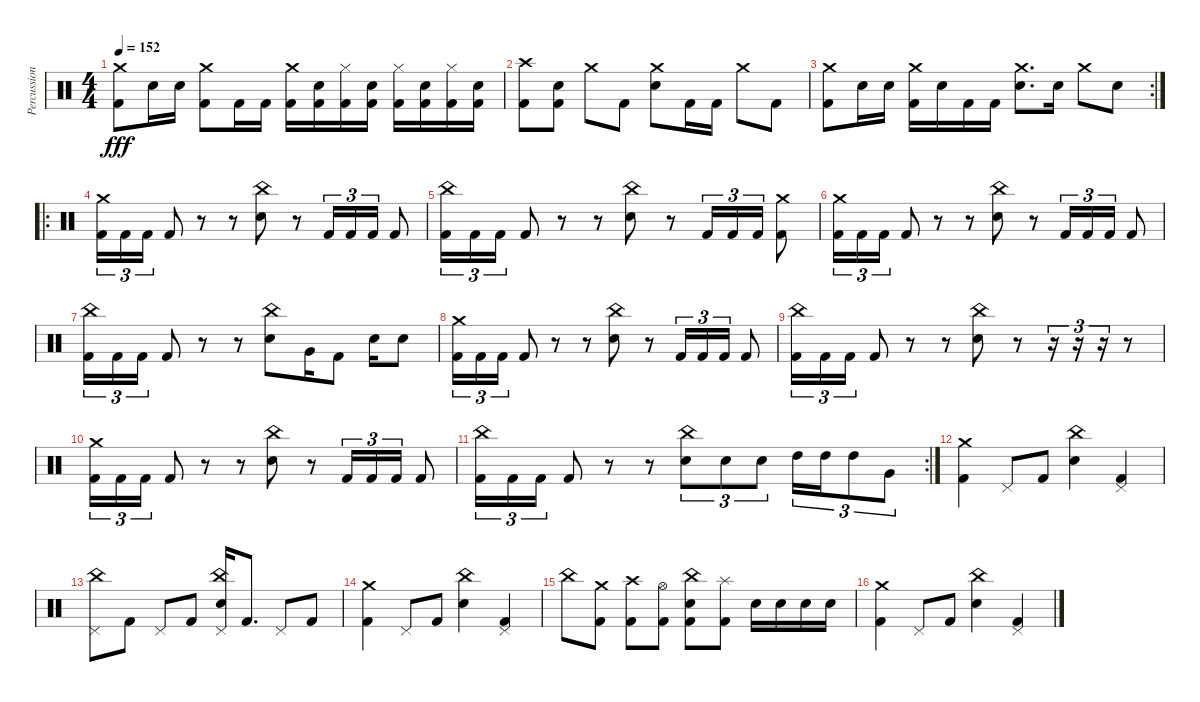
\track ("Percussion" "Percussion") {instrument percussion}
\staff {score}
\articulation defaults
\ts (4 4)
\tempo 152
\clef neutral
\ks c
("Crash medium (hit)" "Kick (hit) 2").8{dy fff} "Electric Snare (hit)".16 "Electric Snare (hit)".16 ("Crash medium (hit)" "Kick (hit) 2").8 "Kick (hit) 2".16 "Kick (hit) 2".16 ("Crash medium (hit)" "Kick (hit) 2").16 ("Kick (hit) 2" "Electric Snare (hit)").16 ("Hi-Hat (closed)" "Kick (hit) 2").16 ("Kick (hit) 2" "Electric Snare (hit)").16 ("Kick (hit) 2" "Hi-Hat (closed)").16 ("Kick (hit) 2" "Electric Snare (hit)").16 ("Hi-Hat (closed)" "Kick (hit) 2").16 ("Kick (hit) 2" "Electric Snare (hit)").16 |
("Kick (hit) 2" "Crash high (hit)").8 ("Kick (hit) 2" "Electric Snare (hit)").8 "Crash medium (hit)".8 "Kick (hit) 2".8 ("Electric Snare (hit)" "Crash medium (hit)").8 "Kick (hit) 2".16 "Kick (hit) 2".16 "Crash medium (hit)".8 "Kick (hit) 2".8 |
\rc 2
("Crash medium (hit)" "Kick (hit) 2").8 "Electric Snare (hit)".16 "Electric Snare (hit)".16 ("Crash medium (hit)" "Kick (hit) 2").16 "Electric Snare (hit)".16 "Kick (hit) 2".16 "Kick (hit) 2".16 ("Electric Snare (hit)" "Crash medium (hit)").8{d} "Electric Snare (hit)".16 "Crash medium (hit)".8 "Electric Snare (hit)".8 |
\ro
("Kick (hit) 2" "Crash medium (hit)").16{tu (3 2)} "Kick (hit) 2".16{tu (3 2)} "Kick (hit) 2".16{tu (3 2)} "Kick (hit) 2".8 r.8 r.8 ("China (hit)" "Electric Snare (hit)").8 r.8 "Kick (hit) 2".16{tu (3 2)} "Kick (hit) 2".16{tu (3 2)} "Kick (hit) 2".16{tu (3 2)} "Kick (hit) 2".8 |
("Kick (hit) 2" "China (hit)").16{tu (3 2)} "Kick (hit) 2".16{tu (3 2)} "Kick (hit) 2".16{tu (3 2)} "Kick (hit) 2".8 r.8 r.8 ("China (hit)" "Electric Snare (hit)").8 r.8 "Kick (hit) 2".16{tu (3 2)} "Kick (hit) 2".16{tu (3 2)} "Kick (hit) 2".16{tu (3 2)} ("Kick (hit) 2" "Crash medium (hit)").8 |
("Kick (hit) 2" "Crash medium (hit)").16{tu (3 2)} "Kick (hit) 2".16{tu (3 2)} "Kick (hit) 2".16{tu (3 2)} "Kick (hit) 2".8 r.8 r.8 ("China (hit)" "Electric Snare (hit)").8 r.8 "Kick (hit) 2".16{tu (3 2)} "Kick (hit) 2".16{tu (3 2)} "Kick (hit) 2".16{tu (3 2)} "Kick (hit) 2".8 |
("Kick (hit) 2" "China (hit)").16{tu (3 2)} "Kick (hit) 2".16{tu (3 2)} "Kick (hit) 2".16{tu (3 2)} "Kick (hit) 2".8 r.8 r.8 ("Electric Snare (hit)" "China (hit)").8 "Very Low Tom (hit)".16 "Kick (hit) 2".8 "Electric Snare (hit)".16 "Electric Snare (hit)".8 |
("Kick (hit) 2" "Crash medium (hit)").16{tu (3 2)} "Kick (hit) 2".16{tu (3 2)} "Kick (hit) 2".16{tu (3 2)} "Kick (hit) 2".8 r.8 r.8 ("China (hit)" "Electric Snare (hit)").8 r.8 "Kick (hit) 2".16{tu (3 2)} "Kick (hit) 2".16{tu (3 2)} "Kick (hit) 2".16{tu (3 2)} "Kick (hit) 2".8 |
("Kick (hit) 2" "China (hit)").16{tu (3 2)} "Kick (hit) 2".16{tu (3 2)} "Kick (hit) 2".16{tu (3 2)} "Kick (hit) 2".8 r.8 r.8 ("China (hit)" "Electric Snare (hit)").8 r.8 r.16{tu (3 2)} r.16{tu (3 2)} r.16{tu (3 2)} r.8 |
("Kick (hit) 2" "Crash medium (hit)").16{tu (3 2)} "Kick (hit) 2".16{tu (3 2)} "Kick (hit) 2".16{tu (3 2)} "Kick (hit) 2".8 r.8 r.8 ("China (hit)" "Electric Snare (hit)").8 r.8 "Kick (hit) 2".16{tu (3 2)} "Kick (hit) 2".16{tu (3 2)} "Kick (hit) 2".16{tu (3 2)} "Kick (hit) 2".8 |
\rc 2
("Kick (hit) 2" "China (hit)").16{tu (3 2)} "Kick (hit) 2".16{tu (3 2)} "Kick (hit) 2".16{tu (3 2)} "Kick (hit) 2".8 r.8 r.8 ("Electric Snare (hit)" "China (hit)").8{tu (3 2)} "Electric Snare (hit)".8{tu (3 2)} "Electric Snare (hit)".8{tu (3 2)} "High Tom (hit)".16{tu (3 2)} "High Tom (hit)".16{tu (3 2)} "High Tom (hit)".8{tu (3 2)} "Very Low Tom (hit)".8{tu (3 2)} |
("Crash medium (hit)" "Kick (hit) 2").4 "Pedal Hi-Hat (hit)".8 "Kick (hit) 2".8 ("Electric Snare (hit)" "China (hit)").4 ("Pedal Hi-Hat (hit)" "Kick (hit) 2").4 |
("Pedal Hi-Hat (hit)" "China (hit)").8 "Kick (hit) 2".8 "Pedal Hi-Hat (hit)".8 "Kick (hit) 2".8 ("Electric Snare (hit)" "China (hit)" "Pedal Hi-Hat (hit)").16 "Kick (hit) 2".8{d} "Pedal Hi-Hat (hit)".8 "Kick (hit) 2".8 |
("Crash medium (hit)" "Kick (hit) 2").4 "Pedal Hi-Hat (hit)".8 "Kick (hit) 2".8 ("Electric Snare (hit)" "China (hit)").4 ("Pedal Hi-Hat (hit)" "Kick (hit) 2").4 |
"China (hit)".8 ("Kick (hit) 2" "Crash medium (hit)").8 ("Kick (hit) 2" "Crash high (hit)").8 ("Kick (hit) 2" "Hi-Hat (open)").8 ("Kick (hit) 2" "Electric Snare (hit)" "China (hit)").8 ("Kick (hit) 2" "Splash (hit)").8 "Electric Snare (hit)".16 "Electric Snare (hit)".16 "Electric Snare (hit)".16 "Electric Snare (hit)".16 |
("Crash medium (hit)" "Kick (hit) 2").4 "Pedal Hi-Hat (hit)".8 "Kick (hit) 2".8 ("Electric Snare (hit)" "China (hit)").4 ("Pedal Hi-Hat (hit)" "Kick (hit) 2").4
